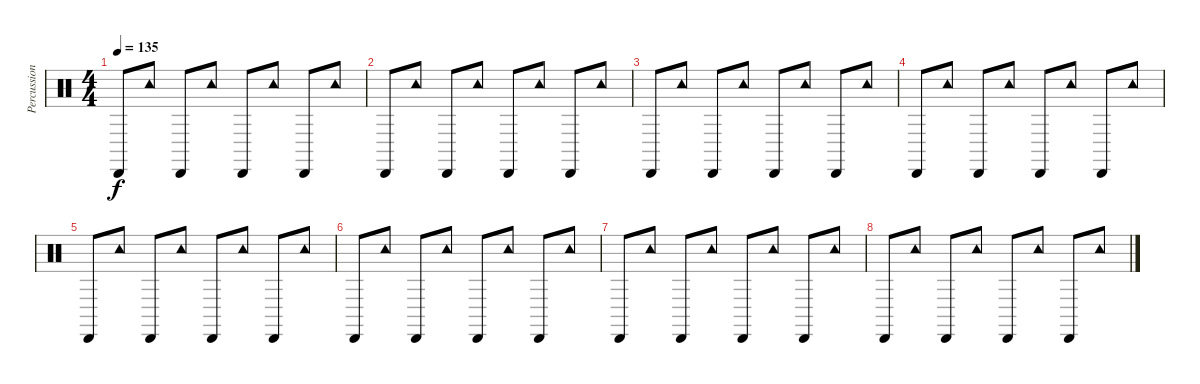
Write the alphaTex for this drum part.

\track ("Percussion2" "Percussion") {instrument percussion}
\staff {score}
\articulation defaults
\ts (4 4)
\tempo 135
\clef neutral
\ks c "Cabasa (hit)".8{dy f} "Tambourine (hit)".8 "Cabasa (hit)".8 "Tambourine (hit)".8 "Cabasa (hit)".8 "Tambourine (hit)".8 "Cabasa (hit)".8 "Tambourine (hit)".8
|
"Cabasa (hit)".8 "Tambourine (hit)".8 "Cabasa (hit)".8 "Tambourine (hit)".8 "Cabasa (hit)".8 "Tambourine (hit)".8 "Cabasa (hit)".8 "Tambourine (hit)".8 |
"Cabasa (hit)".8 "Tambourine (hit)".8 "Cabasa (hit)".8 "Tambourine (hit)".8 "Cabasa (hit)".8 "Tambourine (hit)".8 "Cabasa (hit)".8 "Tambourine (hit)".8 |
"Cabasa (hit)".8 "Tambourine (hit)".8 "Cabasa (hit)".8 "Tambourine (hit)".8 "Cabasa (hit)".8 "Tambourine (hit)".8 "Cabasa (hit)".8 "Tambourine (hit)".8 |
"Cabasa (hit)".8 "Tambourine (hit)".8 "Cabasa (hit)".8 "Tambourine (hit)".8 "Cabasa (hit)".8 "Tambourine (hit)".8 "Cabasa (hit)".8 "Tambourine (hit)".8 |
"Cabasa (hit)".8 "Tambourine (hit)".8 "Cabasa (hit)".8 "Tambourine (hit)".8 "Cabasa (hit)".8 "Tambourine (hit)".8 "Cabasa (hit)".8 "Tambourine (hit)".8 |
"Cabasa (hit)".8 "Tambourine (hit)".8 "Cabasa (hit)".8 "Tambourine (hit)".8 "Cabasa (hit)".8 "Tambourine (hit)".8 "Cabasa (hit)".8 "Tambourine (hit)".8 |
"Cabasa (hit)".8 "Tambourine (hit)".8 "Cabasa (hit)".8 "Tambourine (hit)".8 "Cabasa (hit)".8 "Tambourine (hit)".8 "Cabasa (hit)".8 "Tambourine (hit)".8
